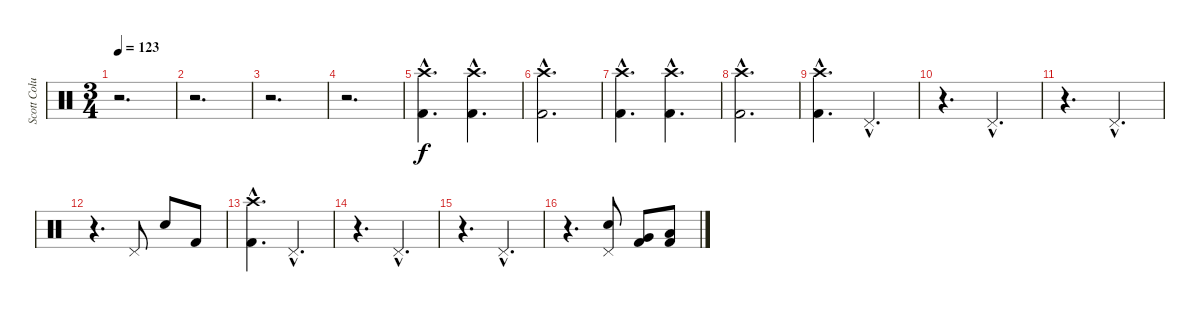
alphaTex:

\track ("Scott Columbus" "Scott Colu") {instrument percussion}
\staff {score}
\articulation defaults
\ts (3 4)
\tempo 123
\clef neutral
\ks c
r.2{d dy f} |
r.2{d} |
r.2{d} |
r.2{d} |
("Crash high (hit)"{hac} "Kick (hit) 2"{hac}).4{d} ("Crash high (hit)"{hac} "Kick (hit) 2"{hac}).4{d} |
("Crash high (hit)"{hac} "Kick (hit) 2"{hac}).2{d} |
("Crash high (hit)"{hac} "Kick (hit) 2"{hac}).4{d} ("Crash high (hit)"{hac} "Kick (hit) 2"{hac}).4{d} |
("Crash high (hit)"{hac} "Kick (hit) 2"{hac}).2{d} |
("Crash high (hit)"{hac} "Kick (hit) 2"{hac}).4{d} "Pedal Hi-Hat (hit)"{hac}.4{d} |
r.4{d} "Pedal Hi-Hat (hit)"{hac}.4{d} |
r.4{d} "Pedal Hi-Hat (hit)"{hac}.4{d} |
r.4{d} "Pedal Hi-Hat (hit)".8 "Snare (hit) 2".8 "Kick (hit) 2".8 |
("Crash high (hit)"{hac} "Kick (hit) 2"{hac}).4{d} "Pedal Hi-Hat (hit)"{hac}.4{d} |
r.4{d} "Pedal Hi-Hat (hit)"{hac}.4{d} |
r.4{d} "Pedal Hi-Hat (hit)"{hac}.4{d} |
r.4{d} ("Pedal Hi-Hat (hit)" "Snare (hit) 2").8 ("Very Low Tom (hit)" "Kick (hit) 2").8 ("Low Floor Tom (hit)" "Kick (hit) 2").8
